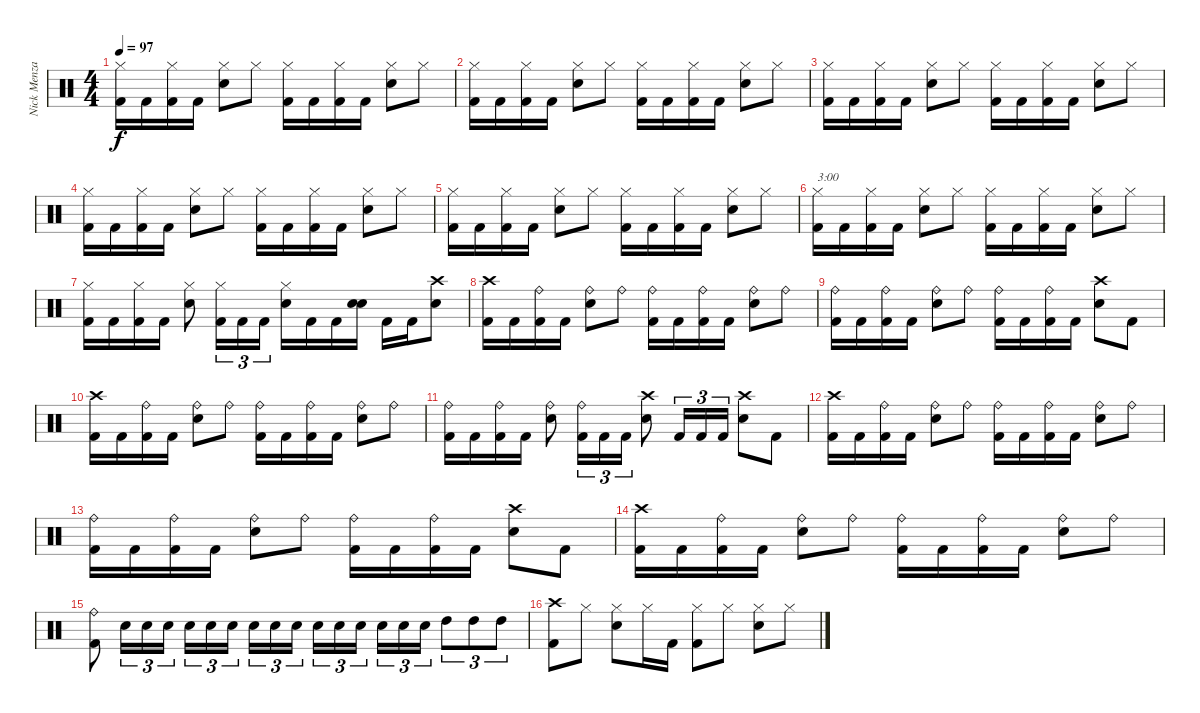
\track ("Nick Menza" "Nick Menza") {instrument percussion}
\staff {score}
\articulation defaults
\ts (4 4)
\tempo 97
\clef neutral
\ks c
("Hi-Hat (closed)" "Kick (hit) 2").16{dy f} "Kick (hit) 2".16 ("Hi-Hat (closed)" "Kick (hit) 2").16 "Kick (hit) 2".16 ("Hi-Hat (closed)" "Electric Snare (hit)").8 "Hi-Hat (closed)".8 ("Hi-Hat (closed)" "Kick (hit) 2").16 "Kick (hit) 2".16 ("Hi-Hat (closed)" "Kick (hit) 2").16 "Kick (hit) 2".16 ("Hi-Hat (closed)" "Electric Snare (hit)").8 "Hi-Hat (closed)".8 |
("Hi-Hat (closed)" "Kick (hit) 2").16 "Kick (hit) 2".16 ("Hi-Hat (closed)" "Kick (hit) 2").16 "Kick (hit) 2".16 ("Hi-Hat (closed)" "Electric Snare (hit)").8 "Hi-Hat (closed)".8 ("Hi-Hat (closed)" "Kick (hit) 2").16 "Kick (hit) 2".16 ("Hi-Hat (closed)" "Kick (hit) 2").16 "Kick (hit) 2".16 ("Hi-Hat (closed)" "Electric Snare (hit)").8 "Hi-Hat (closed)".8 |
("Hi-Hat (closed)" "Kick (hit) 2").16 "Kick (hit) 2".16 ("Hi-Hat (closed)" "Kick (hit) 2").16 "Kick (hit) 2".16 ("Hi-Hat (closed)" "Electric Snare (hit)").8 "Hi-Hat (closed)".8 ("Hi-Hat (closed)" "Kick (hit) 2").16 "Kick (hit) 2".16 ("Hi-Hat (closed)" "Kick (hit) 2").16 "Kick (hit) 2".16 ("Hi-Hat (closed)" "Electric Snare (hit)").8 "Hi-Hat (closed)".8 |
("Hi-Hat (closed)" "Kick (hit) 2").16 "Kick (hit) 2".16 ("Hi-Hat (closed)" "Kick (hit) 2").16 "Kick (hit) 2".16 ("Hi-Hat (closed)" "Electric Snare (hit)").8 "Hi-Hat (closed)".8 ("Hi-Hat (closed)" "Kick (hit) 2").16 "Kick (hit) 2".16 ("Hi-Hat (closed)" "Kick (hit) 2").16 "Kick (hit) 2".16 ("Hi-Hat (closed)" "Electric Snare (hit)").8 "Hi-Hat (closed)".8 |
("Hi-Hat (closed)" "Kick (hit) 2").16 "Kick (hit) 2".16 ("Hi-Hat (closed)" "Kick (hit) 2").16 "Kick (hit) 2".16 ("Hi-Hat (closed)" "Electric Snare (hit)").8 "Hi-Hat (closed)".8 ("Hi-Hat (closed)" "Kick (hit) 2").16 "Kick (hit) 2".16 ("Hi-Hat (closed)" "Kick (hit) 2").16 "Kick (hit) 2".16 ("Hi-Hat (closed)" "Electric Snare (hit)").8 "Hi-Hat (closed)".8 |
("Hi-Hat (closed)" "Kick (hit) 2").16{txt "3:00"} "Kick (hit) 2".16 ("Hi-Hat (closed)" "Kick (hit) 2").16 "Kick (hit) 2".16 ("Hi-Hat (closed)" "Electric Snare (hit)").8 "Hi-Hat (closed)".8 ("Hi-Hat (closed)" "Kick (hit) 2").16 "Kick (hit) 2".16 ("Hi-Hat (closed)" "Kick (hit) 2").16 "Kick (hit) 2".16 ("Hi-Hat (closed)" "Electric Snare (hit)").8 "Hi-Hat (closed)".8 |
("Hi-Hat (closed)" "Kick (hit) 2").16 "Kick (hit) 2".16 ("Hi-Hat (closed)" "Kick (hit) 2").16 "Kick (hit) 2".16 ("Hi-Hat (closed)" "Electric Snare (hit)").8 ("Hi-Hat (closed)" "Kick (hit) 2").16{tu (3 2)} "Kick (hit) 2".16{tu (3 2)} "Kick (hit) 2".16{tu (3 2)} ("Hi-Hat (closed)" "Electric Snare (hit)").16 "Kick (hit) 2".16 "Kick (hit) 2".16 ("Electric Snare (hit)" "Electric Snare (hit)").16 "Kick (hit) 2".16 "Kick (hit) 2".16 ("Crash high (hit)" "Electric Snare (hit)").8 |
("Crash high (hit)" "Kick (hit) 2").16 "Kick (hit) 2".16 ("Ride (bell)" "Kick (hit) 2").16 "Kick (hit) 2".16 ("Ride (bell)" "Electric Snare (hit)").8 "Ride (bell)".8 ("Ride (bell)" "Kick (hit) 2").16 "Kick (hit) 2".16 ("Ride (bell)" "Kick (hit) 2").16 "Kick (hit) 2".16 ("Ride (bell)" "Electric Snare (hit)").8 "Ride (bell)".8 |
("Ride (bell)" "Kick (hit) 2").16 "Kick (hit) 2".16 ("Ride (bell)" "Kick (hit) 2").16 "Kick (hit) 2".16 ("Ride (bell)" "Electric Snare (hit)").8 "Ride (bell)".8 ("Ride (bell)" "Kick (hit) 2").16 "Kick (hit) 2".16 ("Ride (bell)" "Kick (hit) 2").16 "Kick (hit) 2".16 ("Crash high (hit)" "Electric Snare (hit)").8 "Kick (hit) 2".8 |
("Crash high (hit)" "Kick (hit) 2").16 "Kick (hit) 2".16 ("Ride (bell)" "Kick (hit) 2").16 "Kick (hit) 2".16 ("Ride (bell)" "Electric Snare (hit)").8 "Ride (bell)".8 ("Ride (bell)" "Kick (hit) 2").16 "Kick (hit) 2".16 ("Ride (bell)" "Kick (hit) 2").16 "Kick (hit) 2".16 ("Ride (bell)" "Electric Snare (hit)").8 "Ride (bell)".8 |
("Ride (bell)" "Kick (hit) 2").16 "Kick (hit) 2".16 ("Ride (bell)" "Kick (hit) 2").16 "Kick (hit) 2".16 ("Ride (bell)" "Electric Snare (hit)").8 ("Ride (bell)" "Kick (hit) 2").16{tu (3 2)} "Kick (hit) 2".16{tu (3 2)} "Kick (hit) 2".16{tu (3 2)} ("Crash high (hit)" "Electric Snare (hit)").8 "Kick (hit) 2".16{tu (3 2)} "Kick (hit) 2".16{tu (3 2)} "Kick (hit) 2".16{tu (3 2)} ("Crash high (hit)" "Electric Snare (hit)").8 "Kick (hit) 2".8 |
("Crash high (hit)" "Kick (hit) 2").16 "Kick (hit) 2".16 ("Ride (bell)" "Kick (hit) 2").16 "Kick (hit) 2".16 ("Ride (bell)" "Electric Snare (hit)").8 "Ride (bell)".8 ("Ride (bell)" "Kick (hit) 2").16 "Kick (hit) 2".16 ("Ride (bell)" "Kick (hit) 2").16 "Kick (hit) 2".16 ("Ride (bell)" "Electric Snare (hit)").8 "Ride (bell)".8 |
("Ride (bell)" "Kick (hit) 2").16 "Kick (hit) 2".16 ("Ride (bell)" "Kick (hit) 2").16 "Kick (hit) 2".16 ("Ride (bell)" "Electric Snare (hit)").8 "Ride (bell)".8 ("Ride (bell)" "Kick (hit) 2").16 "Kick (hit) 2".16 ("Ride (bell)" "Kick (hit) 2").16 "Kick (hit) 2".16 ("Crash high (hit)" "Electric Snare (hit)").8 "Kick (hit) 2".8 |
("Crash high (hit)" "Kick (hit) 2").16 "Kick (hit) 2".16 ("Ride (bell)" "Kick (hit) 2").16 "Kick (hit) 2".16 ("Ride (bell)" "Electric Snare (hit)").8 "Ride (bell)".8 ("Ride (bell)" "Kick (hit) 2").16 "Kick (hit) 2".16 ("Ride (bell)" "Kick (hit) 2").16 "Kick (hit) 2".16 ("Ride (bell)" "Electric Snare (hit)").8 "Ride (bell)".8 |
("Ride (bell)" "Kick (hit) 2").8 "Electric Snare (hit)".16{tu (3 2)} "Electric Snare (hit)".16{tu (3 2)} "Electric Snare (hit)".16{tu (3 2)} "Electric Snare (hit)".16{tu (3 2)} "Electric Snare (hit)".16{tu (3 2)} "Electric Snare (hit)".16{tu (3 2)} "Electric Snare (hit)".16{tu (3 2)} "Electric Snare (hit)".16{tu (3 2)} "Electric Snare (hit)".16{tu (3 2)} "Electric Snare (hit)".16{tu (3 2)} "Electric Snare (hit)".16{tu (3 2)} "Electric Snare (hit)".16{tu (3 2)} "Electric Snare (hit)".16{tu (3 2)} "Electric Snare (hit)".16{tu (3 2)} "Electric Snare (hit)".16{tu (3 2)} "High Tom (hit)".8{tu (3 2)} "High Tom (hit)".8{tu (3 2)} "High Tom (hit)".8{tu (3 2)} |
("Crash high (hit)" "Kick (hit) 2").8 "Hi-Hat (closed)".8 ("Hi-Hat (closed)" "Electric Snare (hit)").8 "Hi-Hat (closed)".16 "Kick (hit) 2".16 ("Hi-Hat (closed)" "Kick (hit) 2").8 "Hi-Hat (closed)".8 ("Hi-Hat (closed)" "Electric Snare (hit)").8 "Hi-Hat (closed)".8
